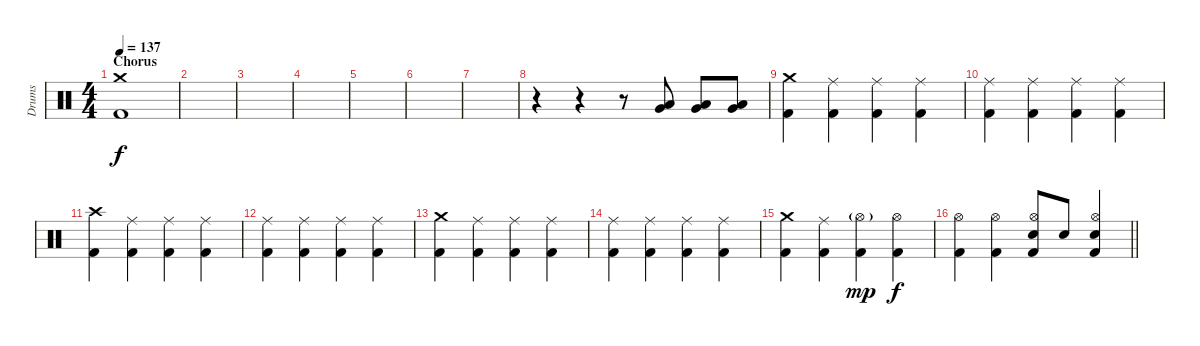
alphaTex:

\track ("Drums" "Drums") {instrument percussion}
\staff {score}
\articulation defaults
\ts (4 4)
\section ("" "Chorus")
\tempo 137
\clef neutral
\ks c
("Crash medium (hit)" "Kick (hit) 2").1{dy f} |
|
|
|
|
|
|
r.4 r.4 r.8 ("Very Low Tom (hit)" "Low Floor Tom (hit)").8 ("Very Low Tom (hit)" "Low Floor Tom (hit)").8 ("Very Low Tom (hit)" "Low Floor Tom (hit)").8 |
("Crash medium (hit)" "Kick (hit) 2").4 ("Ride (middle)" "Kick (hit) 2").4 ("Ride (middle)" "Kick (hit) 2").4 ("Ride (middle)" "Kick (hit) 2").4 |
("Ride (middle)" "Kick (hit) 2").4 ("Ride (middle)" "Kick (hit) 2").4 ("Ride (middle)" "Kick (hit) 2").4 ("Ride (middle)" "Kick (hit) 2").4 |
("Crash high (hit)" "Kick (hit) 2").4 ("Ride (middle)" "Kick (hit) 2").4 ("Ride (middle)" "Kick (hit) 2").4 ("Ride (middle)" "Kick (hit) 2").4 |
("Ride (middle)" "Kick (hit) 2").4 ("Ride (middle)" "Kick (hit) 2").4 ("Ride (middle)" "Kick (hit) 2").4 ("Ride (middle)" "Kick (hit) 2").4 |
("Crash medium (hit)" "Kick (hit) 2").4 ("Ride (middle)" "Kick (hit) 2").4 ("Ride (middle)" "Kick (hit) 2").4 ("Ride (middle)" "Kick (hit) 2").4 |
("Ride (middle)" "Kick (hit) 2").4 ("Ride (middle)" "Kick (hit) 2").4 ("Ride (middle)" "Kick (hit) 2").4 ("Ride (middle)" "Kick (hit) 2").4 |
("Crash medium (hit)" "Kick (hit) 2").4 ("Ride (middle)" "Kick (hit) 2").4 ("Hi-Hat (open)"{g} "Kick (hit) 2").4{dy mp} ("Hi-Hat (open)" "Kick (hit) 2").4{dy f} |
\barLineRight lightlight
("Hi-Hat (open)" "Kick (hit) 2").4 ("Hi-Hat (open)" "Kick (hit) 2").4 ("Hi-Hat (open)" "Electric Snare (hit)" "Kick (hit) 2").8 "Electric Snare (hit)".8 ("Hi-Hat (open)" "Electric Snare (hit)" "Kick (hit) 2").4
